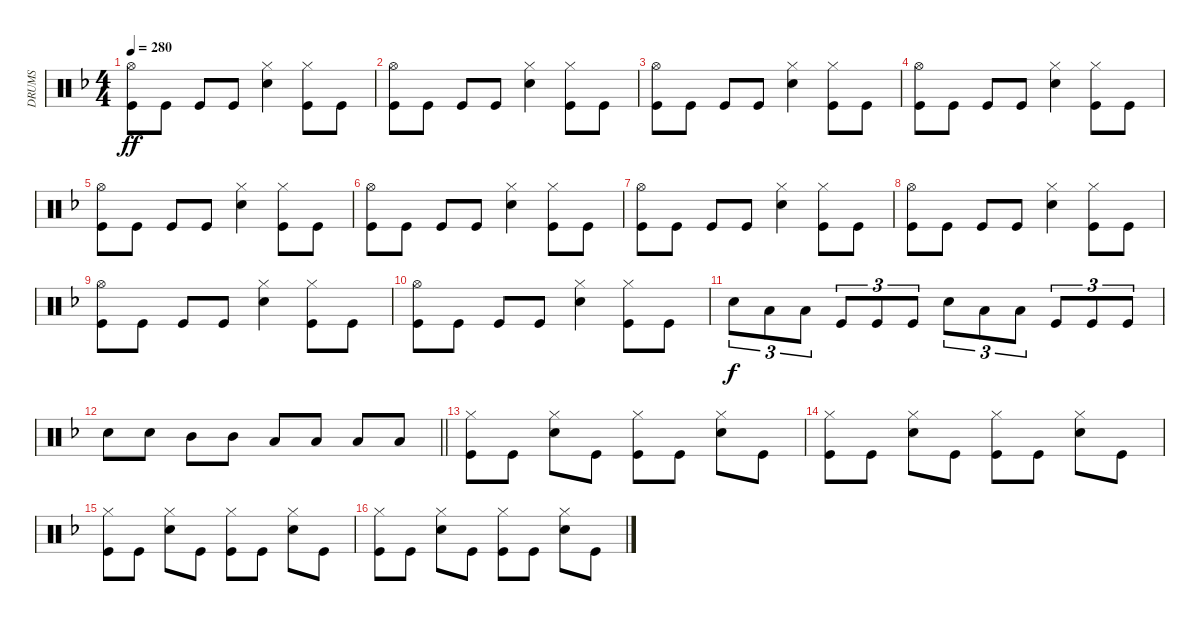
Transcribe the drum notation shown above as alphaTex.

\track ("DRUMS" "DRUMS") {instrument percussion}
\staff {score}
\articulation defaults
\ts (4 4)
\tempo 280
\clef neutral
\ks dminor
("Hi-Hat (open)" "Kick (hit)").8{dy ff} "Kick (hit)".8 "Kick (hit)".8 "Kick (hit)".8 ("Hi-Hat (closed)" "Snare (hit) 2").4 ("Hi-Hat (closed)" "Kick (hit)").8 "Kick (hit)".8 |
("Hi-Hat (open)" "Kick (hit)").8 "Kick (hit)".8 "Kick (hit)".8 "Kick (hit)".8 ("Hi-Hat (closed)" "Snare (hit) 2").4 ("Hi-Hat (closed)" "Kick (hit)").8 "Kick (hit)".8 |
("Hi-Hat (open)" "Kick (hit)").8 "Kick (hit)".8 "Kick (hit)".8 "Kick (hit)".8 ("Hi-Hat (closed)" "Snare (hit) 2").4 ("Hi-Hat (closed)" "Kick (hit)").8 "Kick (hit)".8 |
("Hi-Hat (open)" "Kick (hit)").8 "Kick (hit)".8 "Kick (hit)".8 "Kick (hit)".8 ("Hi-Hat (closed)" "Snare (hit) 2").4 ("Hi-Hat (closed)" "Kick (hit)").8 "Kick (hit)".8 |
("Hi-Hat (open)" "Kick (hit)").8 "Kick (hit)".8 "Kick (hit)".8 "Kick (hit)".8 ("Hi-Hat (closed)" "Snare (hit) 2").4 ("Hi-Hat (closed)" "Kick (hit)").8 "Kick (hit)".8 |
("Hi-Hat (open)" "Kick (hit)").8 "Kick (hit)".8 "Kick (hit)".8 "Kick (hit)".8 ("Hi-Hat (closed)" "Snare (hit) 2").4 ("Hi-Hat (closed)" "Kick (hit)").8 "Kick (hit)".8 |
("Hi-Hat (open)" "Kick (hit)").8 "Kick (hit)".8 "Kick (hit)".8 "Kick (hit)".8 ("Hi-Hat (closed)" "Snare (hit) 2").4 ("Hi-Hat (closed)" "Kick (hit)").8 "Kick (hit)".8 |
("Hi-Hat (open)" "Kick (hit)").8 "Kick (hit)".8 "Kick (hit)".8 "Kick (hit)".8 ("Hi-Hat (closed)" "Snare (hit) 2").4 ("Hi-Hat (closed)" "Kick (hit)").8 "Kick (hit)".8 |
("Hi-Hat (open)" "Kick (hit)").8 "Kick (hit)".8 "Kick (hit)".8 "Kick (hit)".8 ("Hi-Hat (closed)" "Snare (hit) 2").4 ("Hi-Hat (closed)" "Kick (hit)").8 "Kick (hit)".8 |
("Hi-Hat (open)" "Kick (hit)").8 "Kick (hit)".8 "Kick (hit)".8 "Kick (hit)".8 ("Hi-Hat (closed)" "Snare (hit) 2").4 ("Hi-Hat (closed)" "Kick (hit)").8 "Kick (hit)".8 |
"Snare (hit) 2".8{tu (3 2) dy f} "Low Tom (hit)".8{tu (3 2)} "Low Tom (hit)".8{tu (3 2)} "Kick (hit)".8{tu (3 2)} "Kick (hit)".8{tu (3 2)} "Kick (hit)".8{tu (3 2)} "Snare (hit) 2".8{tu (3 2)} "Low Tom (hit)".8{tu (3 2)} "Low Tom (hit)".8{tu (3 2)} "Kick (hit)".8{tu (3 2)} "Kick (hit)".8{tu (3 2)} "Kick (hit)".8{tu (3 2)} |
\barLineRight lightlight "Snare (hit) 2".8 "Snare (hit) 2".8 "Mid Tom (hit)".8 "Mid Tom (hit)".8 "Low Tom (hit)".8 "Low Tom (hit)".8 "Low Tom (hit)".8 "Low Tom (hit)".8
|
("Hi-Hat (closed)" "Kick (hit)").8 "Kick (hit)".8 ("Hi-Hat (closed)" "Snare (hit) 2").8 "Kick (hit)".8 ("Hi-Hat (closed)" "Kick (hit)").8 "Kick (hit)".8 ("Hi-Hat (closed)" "Snare (hit) 2").8 "Kick (hit)".8 |
("Hi-Hat (closed)" "Kick (hit)").8 "Kick (hit)".8 ("Hi-Hat (closed)" "Snare (hit) 2").8 "Kick (hit)".8 ("Hi-Hat (closed)" "Kick (hit)").8 "Kick (hit)".8 ("Hi-Hat (closed)" "Snare (hit) 2").8 "Kick (hit)".8 |
("Hi-Hat (closed)" "Kick (hit)").8 "Kick (hit)".8 ("Hi-Hat (closed)" "Snare (hit) 2").8 "Kick (hit)".8 ("Hi-Hat (closed)" "Kick (hit)").8 "Kick (hit)".8 ("Hi-Hat (closed)" "Snare (hit) 2").8 "Kick (hit)".8 |
("Hi-Hat (closed)" "Kick (hit)").8 "Kick (hit)".8 ("Hi-Hat (closed)" "Snare (hit) 2").8 "Kick (hit)".8 ("Hi-Hat (closed)" "Kick (hit)").8 "Kick (hit)".8 ("Hi-Hat (closed)" "Snare (hit) 2").8 "Kick (hit)".8
